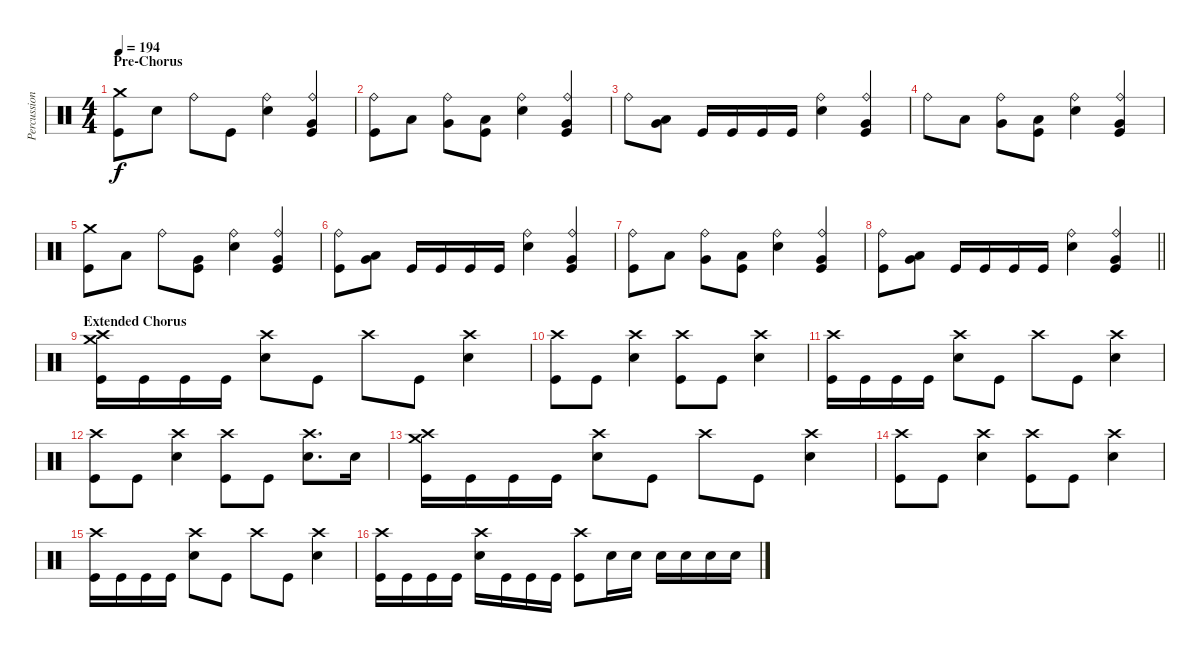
\track ("Percussion" "Percussion") {instrument percussion}
\staff {score}
\articulation defaults
\ts (4 4)
\section ("" "Pre-Chorus")
\tempo 194
\clef neutral
\ks c
("Crash medium (hit)" "Kick (hit)").8{dy f} "Electric Snare (hit)".8 "Ride (bell)".8 "Kick (hit)".8 ("Ride (bell)" "Electric Snare (hit)").4 ("Ride (bell)" "Very Low Tom (hit)" "Kick (hit)").4 |
("Ride (bell)" "Kick (hit)").8 "Low Tom (hit)".8 ("Ride (bell)" "Very Low Tom (hit)").8 ("Low Floor Tom (hit)" "Kick (hit)").8 ("Ride (bell)" "Electric Snare (hit)").4 ("Ride (bell)" "Very Low Tom (hit)" "Kick (hit)").4 |
"Ride (bell)".8 ("Low Tom (hit)" "Very Low Tom (hit)").8 "Kick (hit)".16 "Kick (hit)".16 "Kick (hit)".16 "Kick (hit)".16 ("Ride (bell)" "Electric Snare (hit)").4 ("Ride (bell)" "Very Low Tom (hit)" "Kick (hit)").4 |
"Ride (bell)".8 "Low Tom (hit)".8 ("Ride (bell)" "Very Low Tom (hit)").8 ("Low Floor Tom (hit)" "Kick (hit)").8 ("Ride (bell)" "Electric Snare (hit)").4 ("Ride (bell)" "Very Low Tom (hit)" "Kick (hit)").4 |
("Crash medium (hit)" "Kick (hit)").8 "Low Tom (hit)".8 "Ride (bell)".8 ("Very Low Tom (hit)" "Kick (hit)").8 ("Ride (bell)" "Electric Snare (hit)").4 ("Ride (bell)" "Very Low Tom (hit)" "Kick (hit)").4 |
("Ride (bell)" "Kick (hit)").8 ("Low Tom (hit)" "Very Low Tom (hit)").8 "Kick (hit)".16 "Kick (hit)".16 "Kick (hit)".16 "Kick (hit)".16 ("Ride (bell)" "Electric Snare (hit)").4 ("Ride (bell)" "Very Low Tom (hit)" "Kick (hit)").4 |
("Ride (bell)" "Kick (hit)").8 "Low Tom (hit)".8 ("Ride (bell)" "Very Low Tom (hit)").8 ("Low Floor Tom (hit)" "Kick (hit)").8 ("Ride (bell)" "Electric Snare (hit)").4 ("Ride (bell)" "Very Low Tom (hit)" "Kick (hit)").4 |
\barLineRight lightlight
("Ride (bell)" "Kick (hit)").8 ("Low Tom (hit)" "Very Low Tom (hit)").8 "Kick (hit)".16 "Kick (hit)".16 "Kick (hit)".16 "Kick (hit)".16 ("Ride (bell)" "Electric Snare (hit)").4 ("Ride (bell)" "Very Low Tom (hit)" "Kick (hit)").4 |
\section ("" "Extended Chorus")
("Crash high (hit)" "Crash medium (hit)" "Kick (hit)").16 "Kick (hit)".16 "Kick (hit)".16 "Kick (hit)".16 ("Crash high (hit)" "Electric Snare (hit)").8 "Kick (hit)".8 "Crash high (hit)".8 "Kick (hit)".8 ("Crash high (hit)" "Electric Snare (hit)").4 |
("Crash high (hit)" "Kick (hit)").8 "Kick (hit)".8 ("Crash high (hit)" "Electric Snare (hit)").4 ("Crash high (hit)" "Kick (hit)").8 "Kick (hit)".8 ("Crash high (hit)" "Electric Snare (hit)").4 |
("Crash high (hit)" "Kick (hit)").16 "Kick (hit)".16 "Kick (hit)".16 "Kick (hit)".16 ("Crash high (hit)" "Electric Snare (hit)").8 "Kick (hit)".8 "Crash high (hit)".8 "Kick (hit)".8 ("Crash high (hit)" "Electric Snare (hit)").4 |
("Crash high (hit)" "Kick (hit)").8 "Kick (hit)".8 ("Crash high (hit)" "Electric Snare (hit)").4 ("Crash high (hit)" "Kick (hit)").8 "Kick (hit)".8 ("Crash high (hit)" "Electric Snare (hit)").8{d} "Electric Snare (hit)".16 |
("Crash high (hit)" "Crash medium (hit)" "Kick (hit)").16 "Kick (hit)".16 "Kick (hit)".16 "Kick (hit)".16 ("Crash high (hit)" "Electric Snare (hit)").8 "Kick (hit)".8 "Crash high (hit)".8 "Kick (hit)".8 ("Crash high (hit)" "Electric Snare (hit)").4 |
("Crash high (hit)" "Kick (hit)").8 "Kick (hit)".8 ("Crash high (hit)" "Electric Snare (hit)").4 ("Crash high (hit)" "Kick (hit)").8 "Kick (hit)".8 ("Crash high (hit)" "Electric Snare (hit)").4 |
("Crash high (hit)" "Kick (hit)").16 "Kick (hit)".16 "Kick (hit)".16 "Kick (hit)".16 ("Crash high (hit)" "Electric Snare (hit)").8 "Kick (hit)".8 "Crash high (hit)".8 "Kick (hit)".8 ("Crash high (hit)" "Electric Snare (hit)").4 |
("Crash high (hit)" "Kick (hit)").16 "Kick (hit)".16 "Kick (hit)".16 "Kick (hit)".16 ("Crash high (hit)" "Electric Snare (hit)").16 "Kick (hit)".16 "Kick (hit)".16 "Kick (hit)".16 ("Crash high (hit)" "Kick (hit)").8 "Electric Snare (hit)".16 "Electric Snare (hit)".16 "Electric Snare (hit)".16 "Electric Snare (hit)".16 "Electric Snare (hit)".16 "Electric Snare (hit)".16
